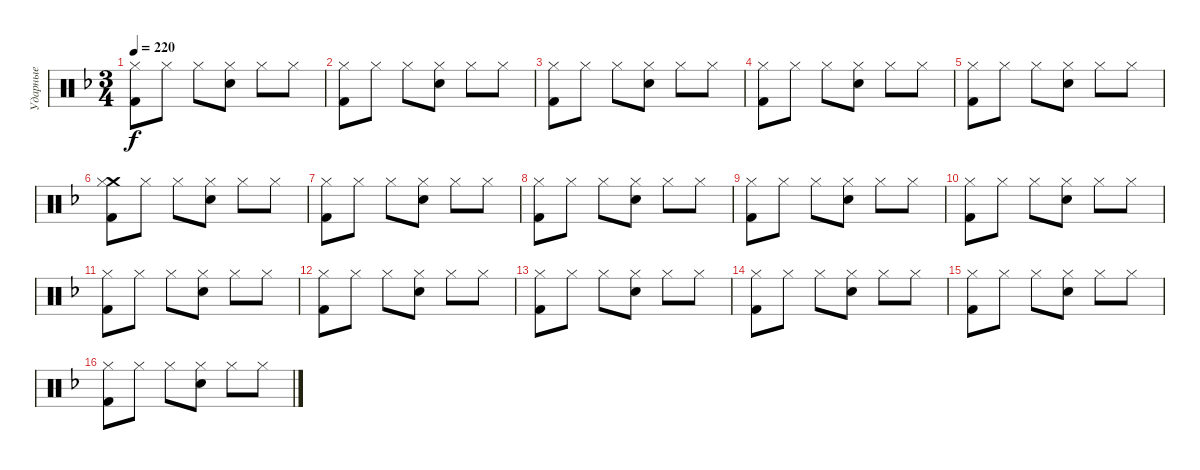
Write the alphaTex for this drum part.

\track ("Ударные" "Ударные") {instrument percussion}
\staff {score}
\articulation defaults
\ts (3 4)
\tempo 220
\clef neutral
\ks f
("Hi-Hat (closed)" "Kick (hit) 2").8{dy f} "Hi-Hat (closed)".8 "Hi-Hat (closed)".8 ("Hi-Hat (closed)" "Electric Snare (hit)").8 "Hi-Hat (closed)".8 "Hi-Hat (closed)".8 |
("Hi-Hat (closed)" "Kick (hit) 2").8 "Hi-Hat (closed)".8 "Hi-Hat (closed)".8 ("Hi-Hat (closed)" "Electric Snare (hit)").8 "Hi-Hat (closed)".8 "Hi-Hat (closed)".8 |
("Hi-Hat (closed)" "Kick (hit) 2").8 "Hi-Hat (closed)".8 "Hi-Hat (closed)".8 ("Hi-Hat (closed)" "Electric Snare (hit)").8 "Hi-Hat (closed)".8 "Hi-Hat (closed)".8 |
("Hi-Hat (closed)" "Kick (hit) 2").8 "Hi-Hat (closed)".8 "Hi-Hat (closed)".8 ("Hi-Hat (closed)" "Electric Snare (hit)").8 "Hi-Hat (closed)".8 "Hi-Hat (closed)".8 |
("Hi-Hat (closed)" "Kick (hit) 2").8 "Hi-Hat (closed)".8 "Hi-Hat (closed)".8 ("Hi-Hat (closed)" "Electric Snare (hit)").8 "Hi-Hat (closed)".8 "Hi-Hat (closed)".8 |
("Crash medium (hit)" "Hi-Hat (closed)" "Kick (hit) 2").8 "Hi-Hat (closed)".8 "Hi-Hat (closed)".8 ("Hi-Hat (closed)" "Electric Snare (hit)").8 "Hi-Hat (closed)".8 "Hi-Hat (closed)".8 |
("Hi-Hat (closed)" "Kick (hit) 2").8 "Hi-Hat (closed)".8 "Hi-Hat (closed)".8 ("Hi-Hat (closed)" "Electric Snare (hit)").8 "Hi-Hat (closed)".8 "Hi-Hat (closed)".8 |
("Hi-Hat (closed)" "Kick (hit) 2").8 "Hi-Hat (closed)".8 "Hi-Hat (closed)".8 ("Hi-Hat (closed)" "Electric Snare (hit)").8 "Hi-Hat (closed)".8 "Hi-Hat (closed)".8 |
("Hi-Hat (closed)" "Kick (hit) 2").8 "Hi-Hat (closed)".8 "Hi-Hat (closed)".8 ("Hi-Hat (closed)" "Electric Snare (hit)").8 "Hi-Hat (closed)".8 "Hi-Hat (closed)".8 |
("Hi-Hat (closed)" "Kick (hit) 2").8 "Hi-Hat (closed)".8 "Hi-Hat (closed)".8 ("Hi-Hat (closed)" "Electric Snare (hit)").8 "Hi-Hat (closed)".8 "Hi-Hat (closed)".8 |
("Hi-Hat (closed)" "Kick (hit) 2").8 "Hi-Hat (closed)".8 "Hi-Hat (closed)".8 ("Hi-Hat (closed)" "Electric Snare (hit)").8 "Hi-Hat (closed)".8 "Hi-Hat (closed)".8 |
("Hi-Hat (closed)" "Kick (hit) 2").8 "Hi-Hat (closed)".8 "Hi-Hat (closed)".8 ("Hi-Hat (closed)" "Electric Snare (hit)").8 "Hi-Hat (closed)".8 "Hi-Hat (closed)".8 |
("Hi-Hat (closed)" "Kick (hit) 2").8 "Hi-Hat (closed)".8 "Hi-Hat (closed)".8 ("Hi-Hat (closed)" "Electric Snare (hit)").8 "Hi-Hat (closed)".8 "Hi-Hat (closed)".8 |
("Hi-Hat (closed)" "Kick (hit) 2").8 "Hi-Hat (closed)".8 "Hi-Hat (closed)".8 ("Hi-Hat (closed)" "Electric Snare (hit)").8 "Hi-Hat (closed)".8 "Hi-Hat (closed)".8 |
("Hi-Hat (closed)" "Kick (hit) 2").8 "Hi-Hat (closed)".8 "Hi-Hat (closed)".8 ("Hi-Hat (closed)" "Electric Snare (hit)").8 "Hi-Hat (closed)".8 "Hi-Hat (closed)".8 |
("Hi-Hat (closed)" "Kick (hit) 2").8 "Hi-Hat (closed)".8 "Hi-Hat (closed)".8 ("Hi-Hat (closed)" "Electric Snare (hit)").8 "Hi-Hat (closed)".8 "Hi-Hat (closed)".8
